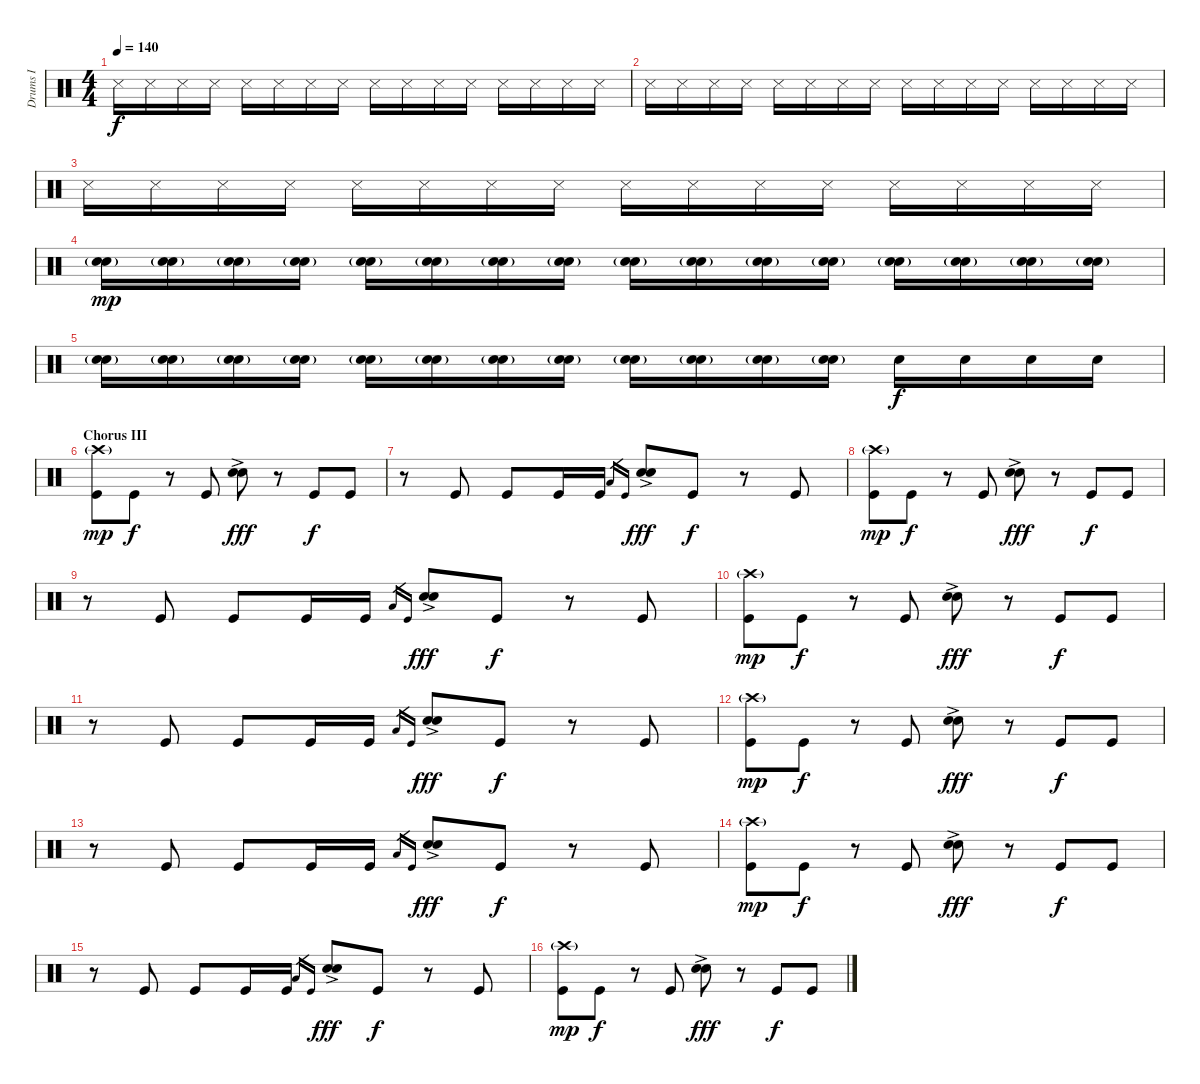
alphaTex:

\track ("Drums I" "Drums I") {instrument percussion}
\staff {score}
\articulation defaults
\ts (4 4)
\tempo 140
\clef neutral
\ks c "Snare (side stick) 3".16{dy f} "Snare (side stick) 3".16 "Snare (side stick) 3".16 "Snare (side stick) 3".16 "Snare (side stick) 3".16 "Snare (side stick) 3".16 "Snare (side stick) 3".16 "Snare (side stick) 3".16 "Snare (side stick) 3".16 "Snare (side stick) 3".16 "Snare (side stick) 3".16 "Snare (side stick) 3".16 "Snare (side stick) 3".16 "Snare (side stick) 3".16 "Snare (side stick) 3".16 "Snare (side stick) 3".16
|
"Snare (side stick) 3".16{volume 13} "Snare (side stick) 3".16 "Snare (side stick) 3".16 "Snare (side stick) 3".16 "Snare (side stick) 3".16 "Snare (side stick) 3".16 "Snare (side stick) 3".16 "Snare (side stick) 3".16 "Snare (side stick) 3".16 "Snare (side stick) 3".16 "Snare (side stick) 3".16 "Snare (side stick) 3".16 "Snare (side stick) 3".16 "Snare (side stick) 3".16 "Snare (side stick) 3".16 "Snare (side stick) 3".16 |
"Snare (side stick) 3".16 "Snare (side stick) 3".16 "Snare (side stick) 3".16 "Snare (side stick) 3".16 "Snare (side stick) 3".16 "Snare (side stick) 3".16 "Snare (side stick) 3".16 "Snare (side stick) 3".16 "Snare (side stick) 3".16 "Snare (side stick) 3".16 "Snare (side stick) 3".16 "Snare (side stick) 3".16 "Snare (side stick) 3".16 "Snare (side stick) 3".16 "Snare (side stick) 3".16 "Snare (side stick) 3".16 |
("Electric Snare (hit)"{g} "Hand Clap (hit)").16{dy mp} ("Electric Snare (hit)"{g} "Hand Clap (hit)").16 ("Electric Snare (hit)"{g} "Hand Clap (hit)").16 ("Electric Snare (hit)"{g} "Hand Clap (hit)").16 ("Electric Snare (hit)"{g} "Hand Clap (hit)").16 ("Electric Snare (hit)"{g} "Hand Clap (hit)").16 ("Electric Snare (hit)"{g} "Hand Clap (hit)").16 ("Electric Snare (hit)"{g} "Hand Clap (hit)").16 ("Electric Snare (hit)"{g} "Hand Clap (hit)").16 ("Electric Snare (hit)"{g} "Hand Clap (hit)").16 ("Electric Snare (hit)"{g} "Hand Clap (hit)").16 ("Electric Snare (hit)"{g} "Hand Clap (hit)").16 ("Electric Snare (hit)"{g} "Hand Clap (hit)").16 ("Electric Snare (hit)"{g} "Hand Clap (hit)").16 ("Electric Snare (hit)"{g} "Hand Clap (hit)").16 ("Electric Snare (hit)"{g} "Hand Clap (hit)").16 |
("Electric Snare (hit)"{g} "Hand Clap (hit)").16 ("Electric Snare (hit)"{g} "Hand Clap (hit)").16 ("Electric Snare (hit)"{g} "Hand Clap (hit)").16 ("Electric Snare (hit)"{g} "Hand Clap (hit)").16 ("Electric Snare (hit)"{g} "Hand Clap (hit)").16 ("Electric Snare (hit)"{g} "Hand Clap (hit)").16 ("Electric Snare (hit)"{g} "Hand Clap (hit)").16 ("Electric Snare (hit)"{g} "Hand Clap (hit)").16 ("Electric Snare (hit)"{g} "Hand Clap (hit)").16 ("Electric Snare (hit)"{g} "Hand Clap (hit)").16 ("Electric Snare (hit)"{g} "Hand Clap (hit)").16 ("Electric Snare (hit)"{g} "Hand Clap (hit)").16 "Snare (hit) 2".16{dy f} "Snare (hit) 2".16 "Snare (hit) 2".16 "Snare (hit) 2".16 |
\section ("" "Chorus III")
("Crash high (hit)"{g} "Kick (hit)").8{dy mp volume 13} "Kick (hit)".8{dy f} r.8 "Kick (hit)".8 ("Electric Snare (hit)"{ac} "Snare (hit) 2").8{dy fff} r.8 "Kick (hit)".8{dy f} "Kick (hit)".8 |
r.8 "Kick (hit)".8 "Kick (hit)".8 "Kick (hit)".16 "Kick (hit)".16 "Low Floor Tom (hit)".16{gr} "Kick (hit)".16{gr} ("Electric Snare (hit)"{ac} "Snare (hit) 2").8{dy fff} "Kick (hit)".8{dy f} r.8 "Kick (hit)".8 |
("Crash high (hit)"{g} "Kick (hit)").8{dy mp} "Kick (hit)".8{dy f} r.8 "Kick (hit)".8 ("Electric Snare (hit)"{ac} "Snare (hit) 2").8{dy fff} r.8 "Kick (hit)".8{dy f} "Kick (hit)".8 |
r.8 "Kick (hit)".8 "Kick (hit)".8 "Kick (hit)".16 "Kick (hit)".16 "Low Floor Tom (hit)".16{gr} "Kick (hit)".16{gr} ("Electric Snare (hit)"{ac} "Snare (hit) 2").8{dy fff} "Kick (hit)".8{dy f} r.8 "Kick (hit)".8 |
("Crash high (hit)"{g} "Kick (hit)").8{dy mp} "Kick (hit)".8{dy f} r.8 "Kick (hit)".8 ("Electric Snare (hit)"{ac} "Snare (hit) 2").8{dy fff} r.8 "Kick (hit)".8{dy f} "Kick (hit)".8 |
r.8 "Kick (hit)".8 "Kick (hit)".8 "Kick (hit)".16 "Kick (hit)".16 "Low Floor Tom (hit)".16{gr} "Kick (hit)".16{gr} ("Electric Snare (hit)"{ac} "Snare (hit) 2").8{dy fff} "Kick (hit)".8{dy f} r.8 "Kick (hit)".8 |
("Crash high (hit)"{g} "Kick (hit)").8{dy mp} "Kick (hit)".8{dy f} r.8 "Kick (hit)".8 ("Electric Snare (hit)"{ac} "Snare (hit) 2").8{dy fff} r.8 "Kick (hit)".8{dy f} "Kick (hit)".8 |
r.8 "Kick (hit)".8 "Kick (hit)".8 "Kick (hit)".16 "Kick (hit)".16 "Low Floor Tom (hit)".16{gr} "Kick (hit)".16{gr} ("Electric Snare (hit)"{ac} "Snare (hit) 2").8{dy fff} "Kick (hit)".8{dy f} r.8 "Kick (hit)".8 |
("Crash high (hit)"{g} "Kick (hit)").8{dy mp} "Kick (hit)".8{dy f} r.8 "Kick (hit)".8 ("Electric Snare (hit)"{ac} "Snare (hit) 2").8{dy fff} r.8 "Kick (hit)".8{dy f} "Kick (hit)".8 |
r.8 "Kick (hit)".8 "Kick (hit)".8 "Kick (hit)".16 "Kick (hit)".16 "Low Floor Tom (hit)".16{gr} "Kick (hit)".16{gr} ("Electric Snare (hit)"{ac} "Snare (hit) 2").8{dy fff} "Kick (hit)".8{dy f} r.8 "Kick (hit)".8 |
("Crash high (hit)"{g} "Kick (hit)").8{dy mp} "Kick (hit)".8{dy f} r.8 "Kick (hit)".8 ("Electric Snare (hit)"{ac} "Snare (hit) 2").8{dy fff} r.8 "Kick (hit)".8{dy f} "Kick (hit)".8
